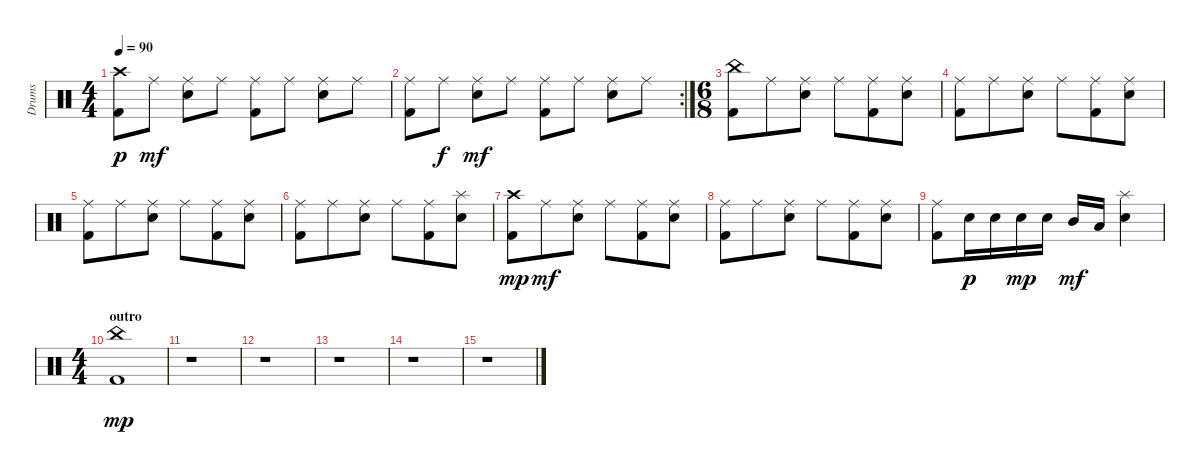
\track ("Drums" "Drums") {instrument percussion}
\staff {score}
\articulation defaults
\ts (4 4)
\tempo 90
\clef neutral
\ks c
("Crash high (hit)" "Kick (hit) 2").8{dy p} "Ride (middle)".8{dy mf} ("Ride (middle)" "Electric Snare (hit)").8 "Ride (middle)".8 ("Ride (middle)" "Kick (hit) 2").8 "Ride (middle)".8 ("Ride (middle)" "Electric Snare (hit)").8 "Ride (middle)".8 |
\rc 2
("Ride (middle)" "Kick (hit) 2").8 "Ride (middle)".8{dy f} ("Ride (middle)" "Electric Snare (hit)").8{dy mf} "Ride (middle)".8 ("Ride (middle)" "Kick (hit) 2").8 "Ride (middle)".8 ("Ride (middle)" "Electric Snare (hit)").8 "Ride (middle)".8 |
\ts (6 8)
("China (hit)" "Kick (hit) 2").8 "Ride (middle)".8 ("Ride (middle)" "Electric Snare (hit)").8 "Ride (middle)".8 ("Ride (middle)" "Kick (hit) 2").8 ("Ride (middle)" "Electric Snare (hit)").8 |
("Ride (middle)" "Kick (hit) 2").8 "Ride (middle)".8 ("Ride (middle)" "Electric Snare (hit)").8 "Ride (middle)".8 ("Ride (middle)" "Kick (hit) 2").8 ("Ride (middle)" "Electric Snare (hit)").8 |
("Ride (middle)" "Kick (hit) 2").8 "Ride (middle)".8 ("Ride (middle)" "Electric Snare (hit)").8 "Ride (middle)".8 ("Ride (middle)" "Kick (hit) 2").8 ("Ride (middle)" "Electric Snare (hit)").8 |
("Ride (middle)" "Kick (hit) 2").8 "Ride (middle)".8 ("Ride (middle)" "Electric Snare (hit)").8 "Ride (middle)".8 ("Ride (middle)" "Kick (hit) 2").8 ("Splash (hit)" "Electric Snare (hit)").8 |
("Crash high (hit)" "Kick (hit) 2").8{dy mp} "Ride (middle)".8{dy mf} ("Ride (middle)" "Electric Snare (hit)").8 "Ride (middle)".8 ("Ride (middle)" "Kick (hit) 2").8 ("Ride (middle)" "Electric Snare (hit)").8 |
("Ride (middle)" "Kick (hit) 2").8 "Ride (middle)".8 ("Ride (middle)" "Electric Snare (hit)").8 "Ride (middle)".8 ("Ride (middle)" "Kick (hit) 2").8 ("Ride (middle)" "Electric Snare (hit)").8 |
("Ride (middle)" "Kick (hit) 2").8 "Electric Snare (hit)".16{dy p} "Electric Snare (hit)".16 "Electric Snare (hit)".16{dy mp} "Electric Snare (hit)".16 "Mid Tom (hit)".16{dy mf} "Low Tom (hit)".16 ("Splash (hit)" "Electric Snare (hit)").4 |
\ts (4 4)
\section ("" "outro")
("China (hit)" "Kick (hit) 2").1{dy mp} |
r.1 |
r.1 |
r.1 |
r.1 |
r.1
